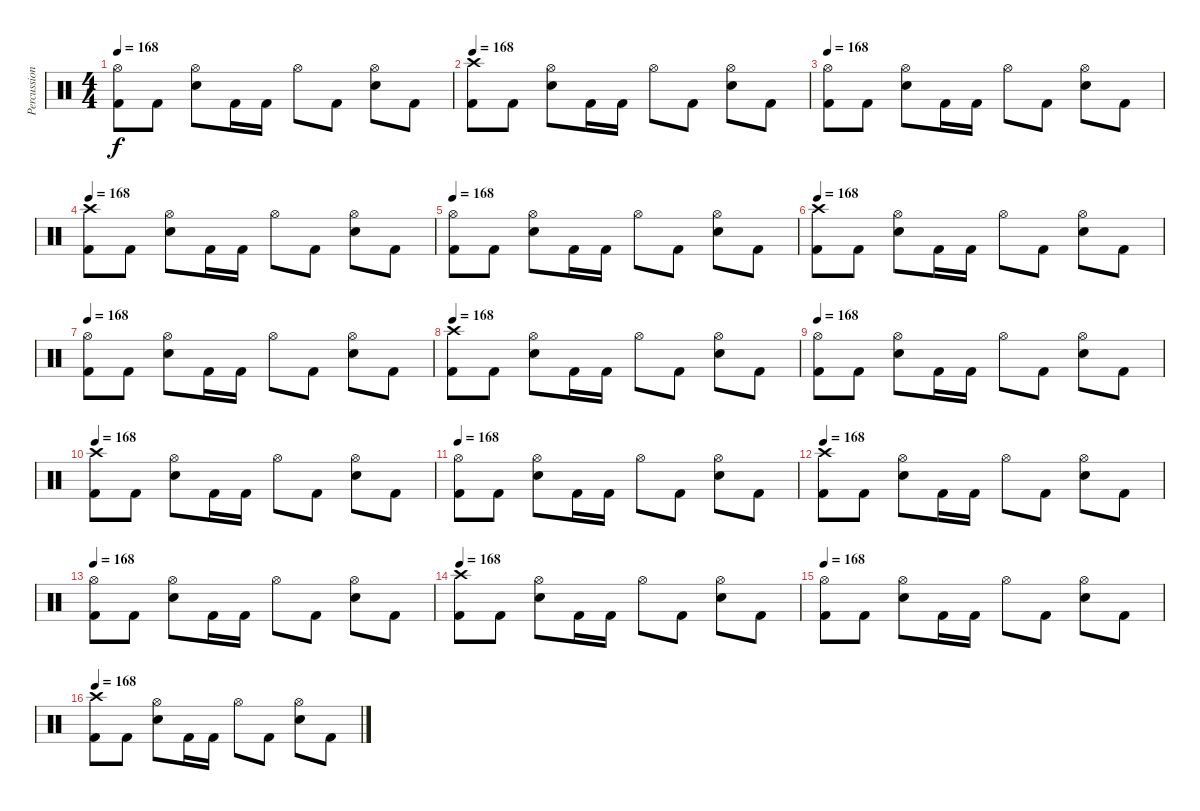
\track ("Percussion" "Percussion") {instrument percussion}
\staff {score}
\articulation defaults
\ts (4 4)
\tempo 168
\clef neutral
\ks c
("Hi-Hat (open)" "Kick (hit) 2").8{dy f} "Kick (hit) 2".8 ("Hi-Hat (open)" "Snare (hit) 2").8 "Kick (hit) 2".16 "Kick (hit) 2".16 "Hi-Hat (open)".8 "Kick (hit) 2".8 ("Hi-Hat (open)" "Snare (hit) 2").8 "Kick (hit) 2".8 |
\tempo 168
("Crash high (hit)" "Kick (hit) 2").8 "Kick (hit) 2".8 ("Hi-Hat (open)" "Snare (hit) 2").8 "Kick (hit) 2".16 "Kick (hit) 2".16 "Hi-Hat (open)".8 "Kick (hit) 2".8 ("Hi-Hat (open)" "Snare (hit) 2").8 "Kick (hit) 2".8 |
\tempo 168
("Hi-Hat (open)" "Kick (hit) 2").8 "Kick (hit) 2".8 ("Hi-Hat (open)" "Snare (hit) 2").8 "Kick (hit) 2".16 "Kick (hit) 2".16 "Hi-Hat (open)".8 "Kick (hit) 2".8 ("Hi-Hat (open)" "Snare (hit) 2").8 "Kick (hit) 2".8 |
\tempo 168
("Crash high (hit)" "Kick (hit) 2").8 "Kick (hit) 2".8 ("Hi-Hat (open)" "Snare (hit) 2").8 "Kick (hit) 2".16 "Kick (hit) 2".16 "Hi-Hat (open)".8 "Kick (hit) 2".8 ("Hi-Hat (open)" "Snare (hit) 2").8 "Kick (hit) 2".8 |
\tempo 168
("Hi-Hat (open)" "Kick (hit) 2").8 "Kick (hit) 2".8 ("Hi-Hat (open)" "Snare (hit) 2").8 "Kick (hit) 2".16 "Kick (hit) 2".16 "Hi-Hat (open)".8 "Kick (hit) 2".8 ("Hi-Hat (open)" "Snare (hit) 2").8 "Kick (hit) 2".8 |
\tempo 168
("Crash high (hit)" "Kick (hit) 2").8 "Kick (hit) 2".8 ("Hi-Hat (open)" "Snare (hit) 2").8 "Kick (hit) 2".16 "Kick (hit) 2".16 "Hi-Hat (open)".8 "Kick (hit) 2".8 ("Hi-Hat (open)" "Snare (hit) 2").8 "Kick (hit) 2".8 |
\tempo 168
("Hi-Hat (open)" "Kick (hit) 2").8 "Kick (hit) 2".8 ("Hi-Hat (open)" "Snare (hit) 2").8 "Kick (hit) 2".16 "Kick (hit) 2".16 "Hi-Hat (open)".8 "Kick (hit) 2".8 ("Hi-Hat (open)" "Snare (hit) 2").8 "Kick (hit) 2".8 |
\tempo 168
("Crash high (hit)" "Kick (hit) 2").8 "Kick (hit) 2".8 ("Hi-Hat (open)" "Snare (hit) 2").8 "Kick (hit) 2".16 "Kick (hit) 2".16 "Hi-Hat (open)".8 "Kick (hit) 2".8 ("Hi-Hat (open)" "Snare (hit) 2").8 "Kick (hit) 2".8 |
\tempo 168
("Hi-Hat (open)" "Kick (hit) 2").8 "Kick (hit) 2".8 ("Hi-Hat (open)" "Snare (hit) 2").8 "Kick (hit) 2".16 "Kick (hit) 2".16 "Hi-Hat (open)".8 "Kick (hit) 2".8 ("Hi-Hat (open)" "Snare (hit) 2").8 "Kick (hit) 2".8 |
\tempo 168
("Crash high (hit)" "Kick (hit) 2").8 "Kick (hit) 2".8 ("Hi-Hat (open)" "Snare (hit) 2").8 "Kick (hit) 2".16 "Kick (hit) 2".16 "Hi-Hat (open)".8 "Kick (hit) 2".8 ("Hi-Hat (open)" "Snare (hit) 2").8 "Kick (hit) 2".8 |
\tempo 168
("Hi-Hat (open)" "Kick (hit) 2").8 "Kick (hit) 2".8 ("Hi-Hat (open)" "Snare (hit) 2").8 "Kick (hit) 2".16 "Kick (hit) 2".16 "Hi-Hat (open)".8 "Kick (hit) 2".8 ("Hi-Hat (open)" "Snare (hit) 2").8 "Kick (hit) 2".8 |
\tempo 168
("Crash high (hit)" "Kick (hit) 2").8 "Kick (hit) 2".8 ("Hi-Hat (open)" "Snare (hit) 2").8 "Kick (hit) 2".16 "Kick (hit) 2".16 "Hi-Hat (open)".8 "Kick (hit) 2".8 ("Hi-Hat (open)" "Snare (hit) 2").8 "Kick (hit) 2".8 |
\tempo 168
("Hi-Hat (open)" "Kick (hit) 2").8 "Kick (hit) 2".8 ("Hi-Hat (open)" "Snare (hit) 2").8 "Kick (hit) 2".16 "Kick (hit) 2".16 "Hi-Hat (open)".8 "Kick (hit) 2".8 ("Hi-Hat (open)" "Snare (hit) 2").8 "Kick (hit) 2".8 |
\tempo 168
("Crash high (hit)" "Kick (hit) 2").8 "Kick (hit) 2".8 ("Hi-Hat (open)" "Snare (hit) 2").8 "Kick (hit) 2".16 "Kick (hit) 2".16 "Hi-Hat (open)".8 "Kick (hit) 2".8 ("Hi-Hat (open)" "Snare (hit) 2").8 "Kick (hit) 2".8 |
\tempo 168
("Hi-Hat (open)" "Kick (hit) 2").8 "Kick (hit) 2".8 ("Hi-Hat (open)" "Snare (hit) 2").8 "Kick (hit) 2".16 "Kick (hit) 2".16 "Hi-Hat (open)".8 "Kick (hit) 2".8 ("Hi-Hat (open)" "Snare (hit) 2").8 "Kick (hit) 2".8 |
\tempo 168
("Crash high (hit)" "Kick (hit) 2").8 "Kick (hit) 2".8 ("Hi-Hat (open)" "Snare (hit) 2").8 "Kick (hit) 2".16 "Kick (hit) 2".16 "Hi-Hat (open)".8 "Kick (hit) 2".8 ("Hi-Hat (open)" "Snare (hit) 2").8 "Kick (hit) 2".8
